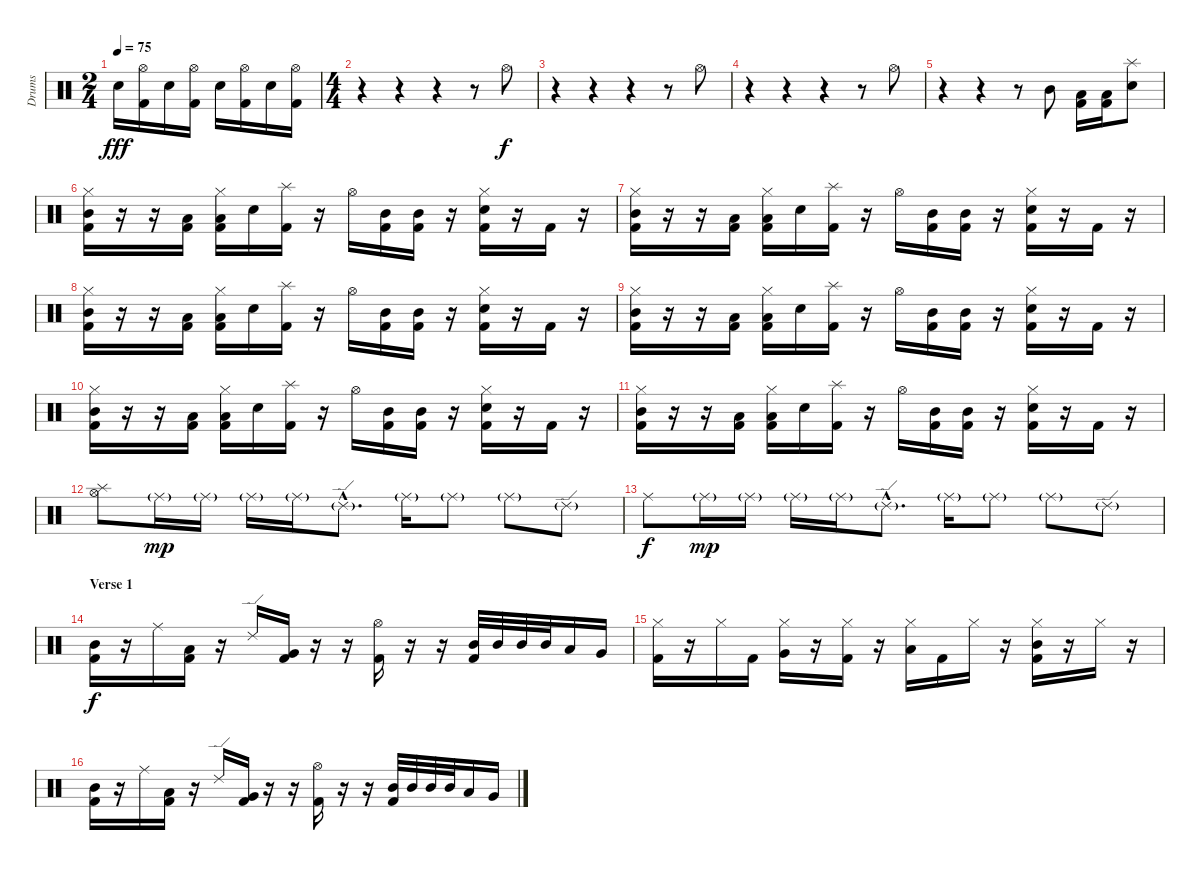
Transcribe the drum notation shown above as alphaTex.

\track ("Drums" "Drums") {instrument percussion}
\staff {score}
\articulation defaults
\ts (2 4)
\tempo 75
\clef neutral
\ks c "Snare (hit) 2".16{dy fff}
("Hi-Hat (open)" "Kick (hit) 2").16 "Snare (hit) 2".16 ("Hi-Hat (open)" "Kick (hit) 2").16 "Snare (hit) 2".16 ("Hi-Hat (open)" "Kick (hit) 2").16 "Snare (hit) 2".16 ("Hi-Hat (open)" "Kick (hit) 2").16 |
\ts (4 4)
r.4 r.4 r.4 r.8 "Hi-Hat (open)".8{dy f} |
r.4 r.4 r.4 r.8 "Hi-Hat (open)".8 |
r.4 r.4 r.4 r.8 "Hi-Hat (open)".8 |
r.4 r.4 r.8 "Mid Tom (hit)".8 ("Low Tom (hit)" "Kick (hit) 2").16 ("Low Tom (hit)" "Kick (hit) 2").16 ("Splash (hit)" "Snare (hit) 2").8 |
("Mid Tom (hit)" "Hi-Hat (closed)" "Kick (hit) 2").16 r.16 r.16 ("Low Tom (hit)" "Kick (hit) 2").16 ("Hi-Hat (closed)" "Low Tom (hit)" "Kick (hit) 2").16 "Snare (hit) 2".16 ("Splash (hit)" "Kick (hit) 2").16 r.16 "Hi-Hat (open)".16 ("Mid Tom (hit)" "Kick (hit) 2").16 ("Mid Tom (hit)" "Kick (hit) 2").16 r.16 ("Hi-Hat (closed)" "Snare (hit) 2" "Kick (hit) 2").16 r.16 "Kick (hit) 2".16 r.16 |
("Mid Tom (hit)" "Hi-Hat (closed)" "Kick (hit) 2").16 r.16 r.16 ("Low Tom (hit)" "Kick (hit) 2").16 ("Hi-Hat (closed)" "Low Tom (hit)" "Kick (hit) 2").16 "Snare (hit) 2".16 ("Splash (hit)" "Kick (hit) 2").16 r.16 "Hi-Hat (open)".16 ("Mid Tom (hit)" "Kick (hit) 2").16 ("Mid Tom (hit)" "Kick (hit) 2").16 r.16 ("Hi-Hat (closed)" "Snare (hit) 2" "Kick (hit) 2").16 r.16 "Kick (hit) 2".16 r.16 |
("Mid Tom (hit)" "Hi-Hat (closed)" "Kick (hit) 2").16 r.16 r.16 ("Low Tom (hit)" "Kick (hit) 2").16 ("Hi-Hat (closed)" "Low Tom (hit)" "Kick (hit) 2").16 "Snare (hit) 2".16 ("Splash (hit)" "Kick (hit) 2").16 r.16 "Hi-Hat (open)".16 ("Mid Tom (hit)" "Kick (hit) 2").16 ("Mid Tom (hit)" "Kick (hit) 2").16 r.16 ("Hi-Hat (closed)" "Snare (hit) 2" "Kick (hit) 2").16 r.16 "Kick (hit) 2".16 r.16 |
("Mid Tom (hit)" "Hi-Hat (closed)" "Kick (hit) 2").16 r.16 r.16 ("Low Tom (hit)" "Kick (hit) 2").16 ("Hi-Hat (closed)" "Low Tom (hit)" "Kick (hit) 2").16 "Snare (hit) 2".16 ("Splash (hit)" "Kick (hit) 2").16 r.16 "Hi-Hat (open)".16 ("Mid Tom (hit)" "Kick (hit) 2").16 ("Mid Tom (hit)" "Kick (hit) 2").16 r.16 ("Hi-Hat (closed)" "Snare (hit) 2" "Kick (hit) 2").16 r.16 "Kick (hit) 2".16 r.16 |
("Mid Tom (hit)" "Hi-Hat (closed)" "Kick (hit) 2").16 r.16 r.16 ("Low Tom (hit)" "Kick (hit) 2").16 ("Hi-Hat (closed)" "Low Tom (hit)" "Kick (hit) 2").16 "Snare (hit) 2".16 ("Splash (hit)" "Kick (hit) 2").16 r.16 "Hi-Hat (open)".16 ("Mid Tom (hit)" "Kick (hit) 2").16 ("Mid Tom (hit)" "Kick (hit) 2").16 r.16 ("Hi-Hat (closed)" "Snare (hit) 2" "Kick (hit) 2").16 r.16 "Kick (hit) 2".16 r.16 |
("Mid Tom (hit)" "Hi-Hat (closed)" "Kick (hit) 2").16 r.16 r.16 ("Low Tom (hit)" "Kick (hit) 2").16 ("Hi-Hat (closed)" "Low Tom (hit)" "Kick (hit) 2").16 "Snare (hit) 2".16 ("Splash (hit)" "Kick (hit) 2").16 r.16 "Hi-Hat (open)".16 ("Mid Tom (hit)" "Kick (hit) 2").16 ("Mid Tom (hit)" "Kick (hit) 2").16 r.16 ("Hi-Hat (closed)" "Snare (hit) 2" "Kick (hit) 2").16 r.16 "Kick (hit) 2".16 r.16 |
("Splash (hit)" "Hi-Hat (open)").8 "Ride (middle)"{g}.16{dy mp} "Ride (middle)"{g}.16 "Ride (middle)"{g}.16 "Ride (middle)"{g}.16 "Ride (edge) 2"{g hac}.8{d} "Ride (middle)"{g}.16 "Ride (middle)"{g}.8 "Ride (middle)"{g}.8 "Ride (edge) 2"{g}.8 |
"Ride (middle)".8{dy f} "Ride (middle)"{g}.16{dy mp} "Ride (middle)"{g}.16 "Ride (middle)"{g}.16 "Ride (middle)"{g}.16 "Ride (edge) 2"{g hac}.8{d} "Ride (middle)"{g}.16 "Ride (middle)"{g}.8 "Ride (middle)"{g}.8 "Ride (edge) 2"{g}.8 |
\section ("" "Verse 1")
("Mid Tom (hit)" "Kick (hit) 2").16{dy f} r.16 "Ride (middle)".16 ("Low Tom (hit)" "Kick (hit) 2").16 r.16 "Ride (edge) 2".16 ("Very Low Tom (hit)" "Kick (hit) 2").16 r.16 r.16 ("Hi-Hat (open)" "Kick (hit) 2").16 r.16 r.16 ("Mid Tom (hit)" "Kick (hit) 2").32 "Mid Tom (hit)".32 "Mid Tom (hit)".32 "Mid Tom (hit)".32 "Low Tom (hit)".16 "Very Low Tom (hit)".16 |
("Hi-Hat (closed)" "Kick (hit) 2").16 r.16 "Hi-Hat (closed)".16 "Kick (hit) 2".16 ("Hi-Hat (closed)" "Very Low Tom (hit)").16 r.16 ("Hi-Hat (closed)" "Kick (hit) 2").16 r.16 ("Hi-Hat (closed)" "Low Tom (hit)").16 "Kick (hit) 2".16 "Hi-Hat (closed)".16 r.16 ("Mid Tom (hit)" "Hi-Hat (closed)" "Kick (hit) 2").16 r.16 "Hi-Hat (closed)".16 r.16 |
("Mid Tom (hit)" "Kick (hit) 2").16 r.16 "Ride (middle)".16 ("Low Tom (hit)" "Kick (hit) 2").16 r.16 "Ride (edge) 2".16 ("Very Low Tom (hit)" "Kick (hit) 2").16 r.16 r.16 ("Hi-Hat (open)" "Kick (hit) 2").16 r.16 r.16 ("Mid Tom (hit)" "Kick (hit) 2").32 "Mid Tom (hit)".32 "Mid Tom (hit)".32 "Mid Tom (hit)".32 "Low Tom (hit)".16 "Very Low Tom (hit)".16
